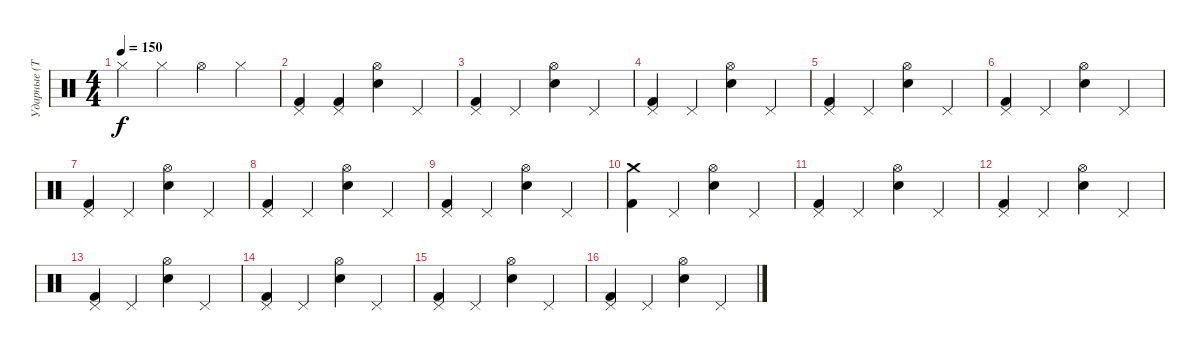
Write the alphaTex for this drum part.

\track ("Ударные (Тоша)" "Ударные (Т") {instrument percussion}
\staff {score}
\articulation defaults
\ts (4 4)
\tempo 150
\clef neutral
\ks c "Hi-Hat (closed)".4{dy f} "Hi-Hat (closed)".4 "Hi-Hat (open)".4 "Hi-Hat (closed)".4
|
("Pedal Hi-Hat (hit)" "Kick (hit) 2").4 ("Pedal Hi-Hat (hit)" "Kick (hit) 2").4 ("Hi-Hat (open)" "Electric Snare (hit)").4 "Pedal Hi-Hat (hit)".4 |
("Pedal Hi-Hat (hit)" "Kick (hit) 2").4 "Pedal Hi-Hat (hit)".4 ("Hi-Hat (open)" "Electric Snare (hit)").4 "Pedal Hi-Hat (hit)".4 |
("Pedal Hi-Hat (hit)" "Kick (hit) 2").4 "Pedal Hi-Hat (hit)".4 ("Hi-Hat (open)" "Electric Snare (hit)").4 "Pedal Hi-Hat (hit)".4 |
("Pedal Hi-Hat (hit)" "Kick (hit) 2").4 "Pedal Hi-Hat (hit)".4 ("Hi-Hat (open)" "Electric Snare (hit)").4 "Pedal Hi-Hat (hit)".4 |
("Pedal Hi-Hat (hit)" "Kick (hit) 2").4 "Pedal Hi-Hat (hit)".4 ("Hi-Hat (open)" "Electric Snare (hit)").4 "Pedal Hi-Hat (hit)".4 |
("Pedal Hi-Hat (hit)" "Kick (hit) 2").4 "Pedal Hi-Hat (hit)".4 ("Hi-Hat (open)" "Electric Snare (hit)").4 "Pedal Hi-Hat (hit)".4 |
("Pedal Hi-Hat (hit)" "Kick (hit) 2").4 "Pedal Hi-Hat (hit)".4 ("Hi-Hat (open)" "Electric Snare (hit)").4 "Pedal Hi-Hat (hit)".4 |
("Pedal Hi-Hat (hit)" "Kick (hit) 2").4 "Pedal Hi-Hat (hit)".4 ("Hi-Hat (open)" "Electric Snare (hit)").4 "Pedal Hi-Hat (hit)".4 |
("Crash medium (hit)" "Kick (hit) 2").4 "Pedal Hi-Hat (hit)".4 ("Hi-Hat (open)" "Electric Snare (hit)").4 "Pedal Hi-Hat (hit)".4 |
("Pedal Hi-Hat (hit)" "Kick (hit) 2").4 "Pedal Hi-Hat (hit)".4 ("Hi-Hat (open)" "Electric Snare (hit)").4 "Pedal Hi-Hat (hit)".4 |
("Pedal Hi-Hat (hit)" "Kick (hit) 2").4 "Pedal Hi-Hat (hit)".4 ("Hi-Hat (open)" "Electric Snare (hit)").4 "Pedal Hi-Hat (hit)".4 |
("Pedal Hi-Hat (hit)" "Kick (hit) 2").4 "Pedal Hi-Hat (hit)".4 ("Hi-Hat (open)" "Electric Snare (hit)").4 "Pedal Hi-Hat (hit)".4 |
("Pedal Hi-Hat (hit)" "Kick (hit) 2").4 "Pedal Hi-Hat (hit)".4 ("Hi-Hat (open)" "Electric Snare (hit)").4 "Pedal Hi-Hat (hit)".4 |
("Pedal Hi-Hat (hit)" "Kick (hit) 2").4 "Pedal Hi-Hat (hit)".4 ("Hi-Hat (open)" "Electric Snare (hit)").4 "Pedal Hi-Hat (hit)".4 |
("Pedal Hi-Hat (hit)" "Kick (hit) 2").4 "Pedal Hi-Hat (hit)".4 ("Hi-Hat (open)" "Electric Snare (hit)").4 "Pedal Hi-Hat (hit)".4
